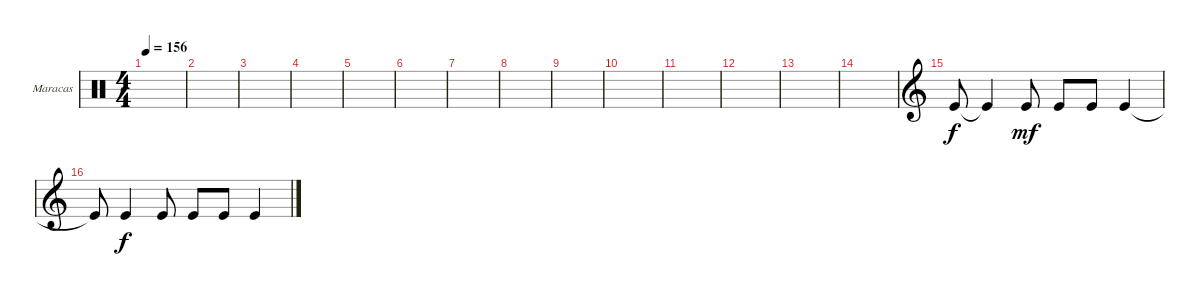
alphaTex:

\defaultSystemsLayout 4
\bracketExtendMode groupsimilarinstruments
\firstSystemTrackNameOrientation horizontal
\otherSystemsTrackNameOrientation horizontal
\track ("Maracas" "Maracas") {instrument percussion}
\staff {score}
\articulation defaults
\ts (4 4)
\tempo 156
\clef neutral
\scale
0.333333
\ks c
|
\scale
0.333333 |
\scale
0.333333 |
\scale
0.333333 |
\scale
0.333333 |
\scale
0.333333 |
\scale
0.333333 |
\scale
0.333333 |
\scale
0.333333 |
\scale
0.333333 |
\scale
0.333333 |
\scale
0.333333 |
\scale
0.333333 |
\scale
0.333333 |
\clef g2
\scale
0.333333 "Kick (hit)".8 "Kick (hit)"{t}.4 "Kick (hit)".8{dy mf} "Kick (hit)".8 "Kick (hit)".8 "Kick (hit)".4 |
\scale
0.333333 "Kick (hit)"{t}.8 "Kick (hit)".4{dy f} "Kick (hit)".8 "Kick (hit)".8 "Kick (hit)".8 "Kick (hit)".4
